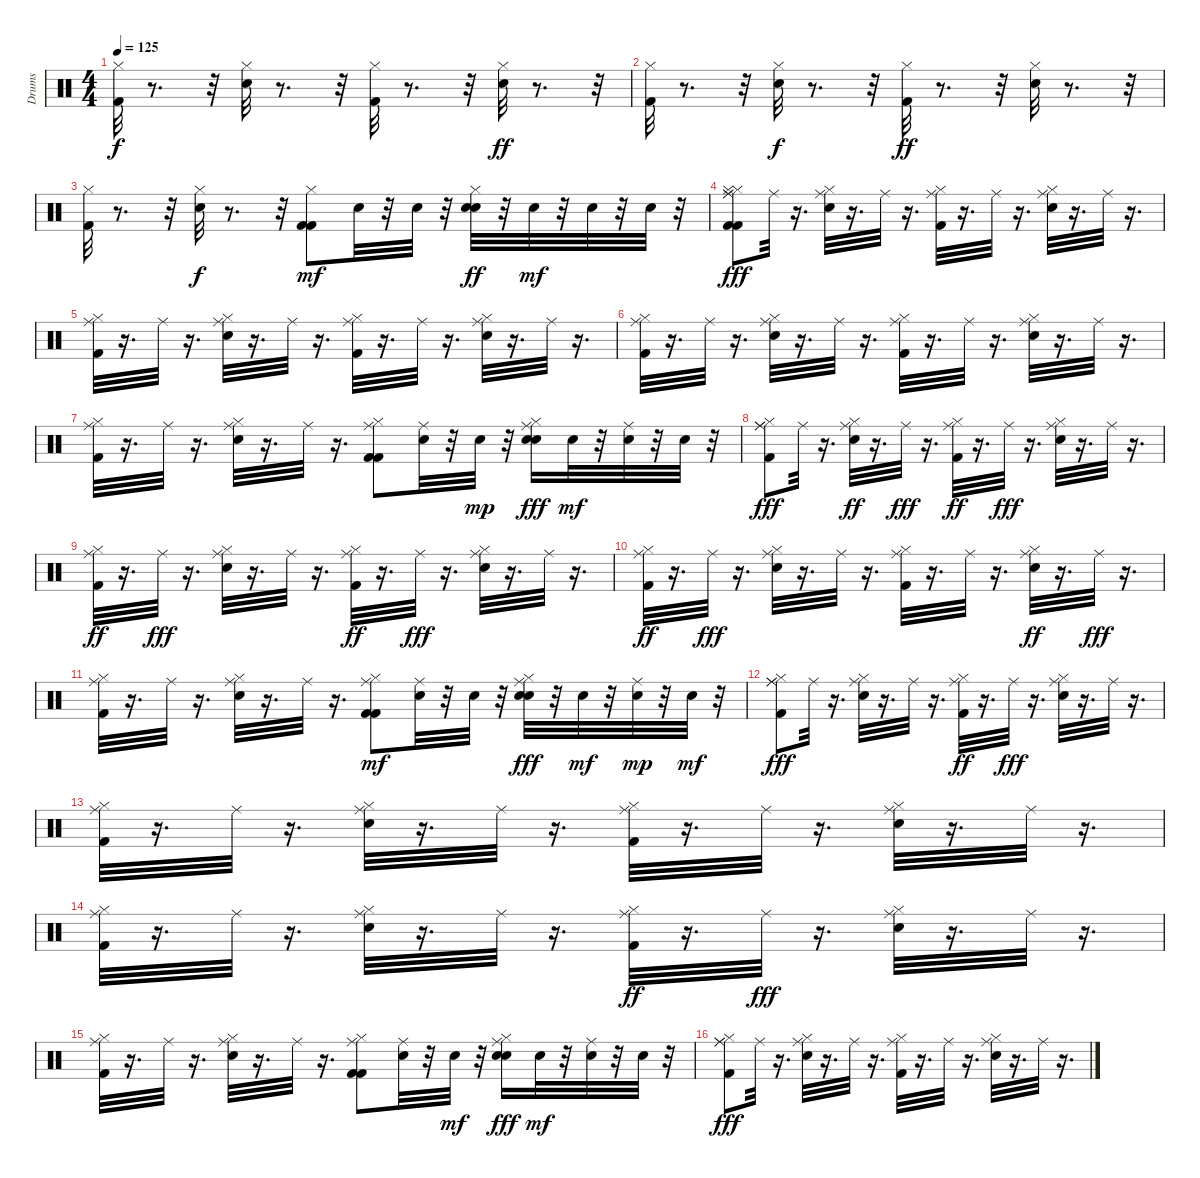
\track ("Drums" "Drums") {instrument percussion}
\staff {score}
\articulation defaults
\ts (4 4)
\tempo 125
\clef neutral
\ks c
("Kick (hit) 2" "Hi-Hat (closed)").32{dy f} r.8{d} r.32 ("Snare (hit) 2" "Hi-Hat (closed)").32 r.8{d} r.32 ("Hi-Hat (closed)" "Kick (hit) 2").32 r.8{d} r.32 ("Hi-Hat (closed)" "Snare (hit) 2").32{dy ff} r.8{d} r.32 |
("Hi-Hat (closed)" "Kick (hit) 2").32 r.8{d} r.32 ("Snare (hit) 2" "Hi-Hat (closed)").32{dy f} r.8{d} r.32 ("Kick (hit) 2" "Hi-Hat (closed)").32{dy ff} r.8{d} r.32 ("Hi-Hat (closed)" "Snare (hit) 2").32 r.8{d} r.32 |
("Hi-Hat (closed)" "Kick (hit) 2").32 r.8{d} r.32 ("Hi-Hat (closed)" "Snare (hit) 2").32{dy f} r.8{d} r.32 ("Kick (hit) 2" "Kick (hit) 2" "Hi-Hat (closed)").8{dy mf} "Snare (hit) 2".32 r.32 "Snare (hit) 2".32 r.32 ("Hi-Hat (closed)" "Snare (hit) 2" "Snare (hit) 2").32{dy ff} r.32 "Snare (hit) 2".32{dy mf} r.32 "Snare (hit) 2".32 r.32 "Snare (hit) 2".32 r.32 |
("Kick (hit) 2" "Ride (middle)" "Hi-Hat (closed)" "Hi-Hat (closed)" "Kick (hit) 2" "Ride (middle)").8{dy fff} "Ride (middle)".32 r.16{d} ("Snare (hit) 2" "Hi-Hat (closed)" "Ride (middle)").32{volume 13} r.16{d} "Ride (middle)".32{volume 12} r.16{d} ("Hi-Hat (closed)" "Kick (hit) 2" "Ride (middle)").32{volume 12} r.16{d} "Ride (middle)".32{volume 12} r.16{d} ("Ride (middle)" "Snare (hit) 2" "Hi-Hat (closed)").32{volume 12} r.16{d} "Ride (middle)".32 r.16{d} |
("Hi-Hat (closed)" "Kick (hit) 2" "Ride (middle)").32{volume 12} r.16{d} "Ride (middle)".32{volume 12} r.16{d} ("Ride (middle)" "Hi-Hat (closed)" "Snare (hit) 2").32{volume 12} r.16{d} "Ride (middle)".32{volume 12} r.16{d} ("Hi-Hat (closed)" "Kick (hit) 2" "Ride (middle)").32{volume 12} r.16{d} "Ride (middle)".32{volume 11} r.16{d} ("Hi-Hat (closed)" "Ride (middle)" "Snare (hit) 2").32 r.16{d} "Ride (middle)".32{volume 11} r.16{d} |
("Ride (middle)" "Kick (hit) 2" "Hi-Hat (closed)").32{volume 11} r.16{d} "Ride (middle)".32{volume 11} r.16{d} ("Hi-Hat (closed)" "Snare (hit) 2" "Ride (middle)").32{volume 11} r.16{d} "Ride (middle)".32{volume 11} r.16{d} ("Hi-Hat (closed)" "Ride (middle)" "Kick (hit) 2").32{volume 11} r.16{d} "Ride (middle)".32 r.16{d} ("Hi-Hat (closed)" "Snare (hit) 2" "Ride (middle)").32{volume 10} r.16{d} "Ride (middle)".32{volume 10} r.16{d} |
("Ride (middle)" "Kick (hit) 2" "Hi-Hat (closed)").32{volume 10} r.16{d} "Ride (middle)".32{volume 10} r.16{d} ("Snare (hit) 2" "Hi-Hat (closed)" "Ride (middle)").32{volume 10} r.16{d} "Ride (middle)".32 r.16{d} ("Kick (hit) 2" "Hi-Hat (closed)" "Kick (hit) 2" "Ride (middle)").8{volume 10} ("Snare (hit) 2" "Ride (middle)").32{volume 10} r.32 "Snare (hit) 2".32{dy mp volume 10} r.32 ("Snare (hit) 2" "Hi-Hat (closed)" "Snare (hit) 2" "Ride (middle)").16{dy fff} "Snare (hit) 2".32{dy mf} r.32 ("Ride (middle)" "Snare (hit) 2").32{volume 10} r.32 "Snare (hit) 2".32 r.32 |
("Hi-Hat (closed)" "Kick (hit) 2" "Ride (middle)" "Ride (middle)").8{dy fff volume 9} "Ride (middle)".32{volume 9} r.16{d} ("Ride (middle)" "Hi-Hat (closed)" "Snare (hit) 2").32{dy ff} r.16{d} "Ride (middle)".32{dy fff volume 9} r.16{d} ("Ride (middle)" "Hi-Hat (closed)" "Kick (hit) 2").32{dy ff volume 9} r.16{d} "Ride (middle)".32{dy fff volume 9} r.16{d} ("Ride (middle)" "Hi-Hat (closed)" "Snare (hit) 2").32{volume 9} r.16{d} "Ride (middle)".32{volume 9} r.16{d} |
("Ride (middle)" "Kick (hit) 2" "Hi-Hat (closed)").32{dy ff volume 8} r.16{d} "Ride (middle)".32{dy fff} r.16{d} ("Ride (middle)" "Hi-Hat (closed)" "Snare (hit) 2").32{volume 8} r.16{d} "Ride (middle)".32{volume 8} r.16{d} ("Ride (middle)" "Kick (hit) 2" "Hi-Hat (closed)").32{dy ff volume 8} r.16{d} "Ride (middle)".32{dy fff volume 8} r.16{d} ("Ride (middle)" "Hi-Hat (closed)" "Snare (hit) 2").32{volume 8} r.16{d} "Ride (middle)".32 r.16{d} |
("Ride (middle)" "Kick (hit) 2" "Hi-Hat (closed)").32{dy ff volume 8} r.16{d} "Ride (middle)".32{dy fff volume 8} r.16{d} ("Ride (middle)" "Snare (hit) 2" "Hi-Hat (closed)").32{volume 8} r.16{d} "Ride (middle)".32{volume 7} r.16{d} ("Ride (middle)" "Kick (hit) 2" "Hi-Hat (closed)").32{volume 7} r.16{d} "Ride (middle)".32{volume 7} r.16{d} ("Ride (middle)" "Snare (hit) 2" "Hi-Hat (closed)").32{dy ff} r.16{d} "Ride (middle)".32{dy fff volume 7} r.16{d} |
("Ride (middle)" "Kick (hit) 2" "Hi-Hat (closed)").32{volume 7} r.16{d} "Ride (middle)".32{volume 7} r.16{d} ("Ride (middle)" "Hi-Hat (closed)" "Snare (hit) 2").32{volume 7} r.16{d} "Ride (middle)".32{volume 6} r.16{d} ("Ride (middle)" "Hi-Hat (closed)" "Kick (hit) 2" "Kick (hit) 2").8{dy mf volume 6} ("Ride (middle)" "Snare (hit) 2").32 r.32 "Snare (hit) 2".32{volume 6} r.32 ("Ride (middle)" "Snare (hit) 2" "Snare (hit) 2" "Hi-Hat (closed)").32{dy fff} r.32 "Snare (hit) 2".32{dy mf volume 6} r.32 ("Ride (middle)" "Snare (hit) 2").32{dy mp} r.32 "Snare (hit) 2".32{dy mf volume 6} r.32 |
("Ride (middle)" "Ride (middle)" "Kick (hit) 2" "Hi-Hat (closed)").8{dy fff} "Ride (middle)".32{volume 6} r.16{d} ("Hi-Hat (closed)" "Ride (middle)" "Snare (hit) 2").32{volume 6} r.16{d} "Ride (middle)".32 r.16{d} ("Ride (middle)" "Kick (hit) 2" "Hi-Hat (closed)").32{dy ff volume 6} r.16{d} "Ride (middle)".32{dy fff volume 6} r.16{d} ("Ride (middle)" "Hi-Hat (closed)" "Snare (hit) 2").32{volume 5} r.16{d} "Ride (middle)".32{volume 5} r.16{d} |
("Hi-Hat (closed)" "Ride (middle)" "Kick (hit) 2").32{volume 5} r.16{d} "Ride (middle)".32{volume 5} r.16{d} ("Hi-Hat (closed)" "Snare (hit) 2" "Ride (middle)").32 r.16{d} "Ride (middle)".32{volume 5} r.16{d} ("Ride (middle)" "Hi-Hat (closed)" "Kick (hit) 2").32{volume 5} r.16{d} "Ride (middle)".32{volume 5} r.16{d} ("Ride (middle)" "Hi-Hat (closed)" "Snare (hit) 2").32{volume 4} r.16{d} "Ride (middle)".32{volume 4} r.16{d} |
("Hi-Hat (closed)" "Kick (hit) 2" "Ride (middle)").32{volume 4} r.16{d} "Ride (middle)".32 r.16{d} ("Snare (hit) 2" "Hi-Hat (closed)" "Ride (middle)").32{volume 4} r.16{d} "Ride (middle)".32{volume 4} r.16{d} ("Ride (middle)" "Hi-Hat (closed)" "Kick (hit) 2").32{dy ff volume 4} r.16{d} "Ride (middle)".32{dy fff volume 4} r.16{d} ("Ride (middle)" "Snare (hit) 2" "Hi-Hat (closed)").32{volume 4} r.16{d} "Ride (middle)".32 r.16{d} |
("Hi-Hat (closed)" "Ride (middle)" "Kick (hit) 2").32{volume 4} r.16{d} "Ride (middle)".32{volume 3} r.16{d} ("Ride (middle)" "Snare (hit) 2" "Hi-Hat (closed)").32{volume 3} r.16{d} "Ride (middle)".32{volume 3} r.16{d} ("Kick (hit) 2" "Hi-Hat (closed)" "Kick (hit) 2" "Ride (middle)").8{volume 3} ("Snare (hit) 2" "Ride (middle)").32{volume 3} r.32 "Snare (hit) 2".32{dy mf} r.32 ("Snare (hit) 2" "Ride (middle)" "Hi-Hat (closed)" "Snare (hit) 2").16{dy fff} "Snare (hit) 2".32{dy mf volume 3} r.32 ("Ride (middle)" "Snare (hit) 2").32 r.32 "Snare (hit) 2".32{volume 3} r.32 |
("Ride (middle)" "Hi-Hat (closed)" "Ride (middle)" "Kick (hit) 2").8{dy fff} "Ride (middle)".32{volume 2} r.16{d} ("Hi-Hat (closed)" "Ride (middle)" "Snare (hit) 2").32{volume 2} r.16{d} "Ride (middle)".32{volume 2} r.16{d} ("Kick (hit) 2" "Ride (middle)" "Hi-Hat (closed)").32{volume 2} r.16{d} "Ride (middle)".32 r.16{d} ("Hi-Hat (closed)" "Snare (hit) 2" "Ride (middle)").32{volume 2} r.16{d} "Ride (middle)".32{volume 2} r.16{d}
